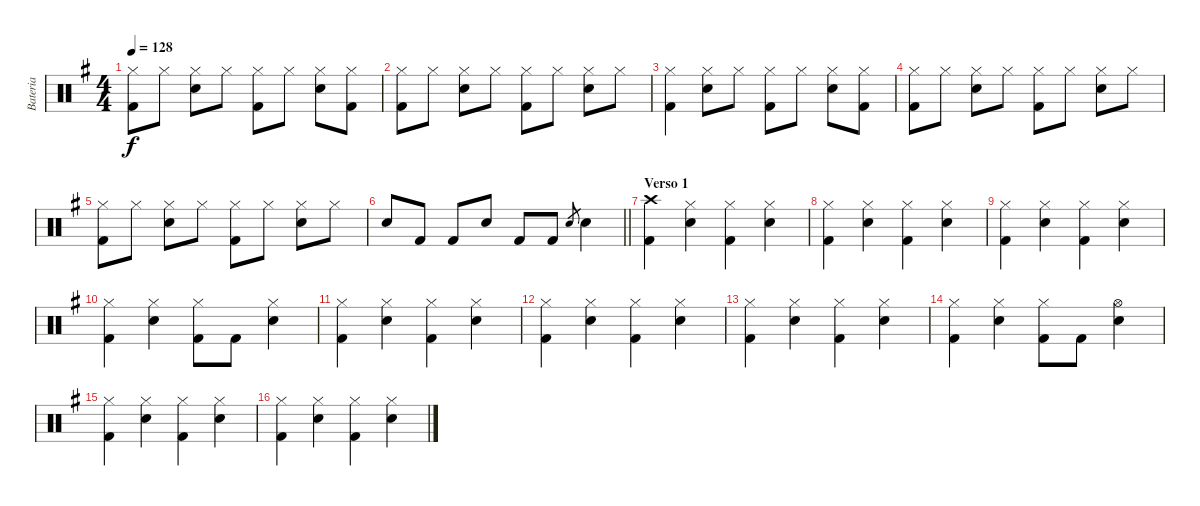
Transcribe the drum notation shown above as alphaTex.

\track ("Bateria" "Bateria") {instrument percussion}
\staff {score}
\articulation defaults
\ts (4 4)
\tempo 128
\clef neutral
\ks g
("Hi-Hat (closed)" "Kick (hit) 2").8{dy f} "Hi-Hat (closed)".8 ("Hi-Hat (closed)" "Snare (hit) 2").8 "Hi-Hat (closed)".8 ("Hi-Hat (closed)" "Kick (hit) 2").8 "Hi-Hat (closed)".8 ("Hi-Hat (closed)" "Snare (hit) 2").8 ("Hi-Hat (closed)" "Kick (hit) 2").8 |
("Hi-Hat (closed)" "Kick (hit) 2").8 "Hi-Hat (closed)".8 ("Hi-Hat (closed)" "Snare (hit) 2").8 "Hi-Hat (closed)".8 ("Hi-Hat (closed)" "Kick (hit) 2").8 "Hi-Hat (closed)".8 ("Hi-Hat (closed)" "Snare (hit) 2").8 "Hi-Hat (closed)".8 |
("Hi-Hat (closed)" "Kick (hit) 2").4 ("Hi-Hat (closed)" "Snare (hit) 2").8 "Hi-Hat (closed)".8 ("Hi-Hat (closed)" "Kick (hit) 2").8 "Hi-Hat (closed)".8 ("Hi-Hat (closed)" "Snare (hit) 2").8 ("Hi-Hat (closed)" "Kick (hit) 2").8 |
("Hi-Hat (closed)" "Kick (hit) 2").8 "Hi-Hat (closed)".8 ("Hi-Hat (closed)" "Snare (hit) 2").8 "Hi-Hat (closed)".8 ("Hi-Hat (closed)" "Kick (hit) 2").8 "Hi-Hat (closed)".8 ("Hi-Hat (closed)" "Snare (hit) 2").8 "Hi-Hat (closed)".8 |
("Hi-Hat (closed)" "Kick (hit) 2").8 "Hi-Hat (closed)".8 ("Hi-Hat (closed)" "Snare (hit) 2").8 "Hi-Hat (closed)".8 ("Hi-Hat (closed)" "Kick (hit) 2").8 "Hi-Hat (closed)".8 ("Hi-Hat (closed)" "Snare (hit) 2").8 "Hi-Hat (closed)".8 |
\barLineRight lightlight "Snare (hit) 2".8 "Kick (hit) 2".8 "Kick (hit) 2".8 "Snare (hit) 2".8 "Kick (hit) 2".8 "Kick (hit) 2".8 "Snare (hit) 2".8{gr} "Snare (hit) 2".4
|
\section ("" "Verso 1")
("Crash high (hit)" "Kick (hit) 2").4 ("Hi-Hat (closed)" "Snare (hit) 2").4 ("Hi-Hat (closed)" "Kick (hit) 2").4 ("Hi-Hat (closed)" "Snare (hit) 2").4 |
("Hi-Hat (closed)" "Kick (hit) 2").4 ("Hi-Hat (closed)" "Snare (hit) 2").4 ("Hi-Hat (closed)" "Kick (hit) 2").4 ("Hi-Hat (closed)" "Snare (hit) 2").4 |
("Hi-Hat (closed)" "Kick (hit) 2").4 ("Hi-Hat (closed)" "Snare (hit) 2").4 ("Hi-Hat (closed)" "Kick (hit) 2").4 ("Hi-Hat (closed)" "Snare (hit) 2").4 |
("Hi-Hat (closed)" "Kick (hit) 2").4 ("Hi-Hat (closed)" "Snare (hit) 2").4 ("Hi-Hat (closed)" "Kick (hit) 2").8 "Kick (hit) 2".8 ("Hi-Hat (closed)" "Snare (hit) 2").4 |
("Hi-Hat (closed)" "Kick (hit) 2").4 ("Hi-Hat (closed)" "Snare (hit) 2").4 ("Hi-Hat (closed)" "Kick (hit) 2").4 ("Hi-Hat (closed)" "Snare (hit) 2").4 |
("Hi-Hat (closed)" "Kick (hit) 2").4 ("Hi-Hat (closed)" "Snare (hit) 2").4 ("Hi-Hat (closed)" "Kick (hit) 2").4 ("Hi-Hat (closed)" "Snare (hit) 2").4 |
("Hi-Hat (closed)" "Kick (hit) 2").4 ("Hi-Hat (closed)" "Snare (hit) 2").4 ("Hi-Hat (closed)" "Kick (hit) 2").4 ("Hi-Hat (closed)" "Snare (hit) 2").4 |
("Hi-Hat (closed)" "Kick (hit) 2").4 ("Hi-Hat (closed)" "Snare (hit) 2").4 ("Hi-Hat (closed)" "Kick (hit) 2").8 "Kick (hit) 2".8 ("Hi-Hat (open)" "Snare (hit) 2").4 |
("Hi-Hat (closed)" "Kick (hit) 2").4 ("Hi-Hat (closed)" "Snare (hit) 2").4 ("Hi-Hat (closed)" "Kick (hit) 2").4 ("Hi-Hat (closed)" "Snare (hit) 2").4 |
("Hi-Hat (closed)" "Kick (hit) 2").4 ("Hi-Hat (closed)" "Snare (hit) 2").4 ("Hi-Hat (closed)" "Kick (hit) 2").4 ("Hi-Hat (closed)" "Snare (hit) 2").4
